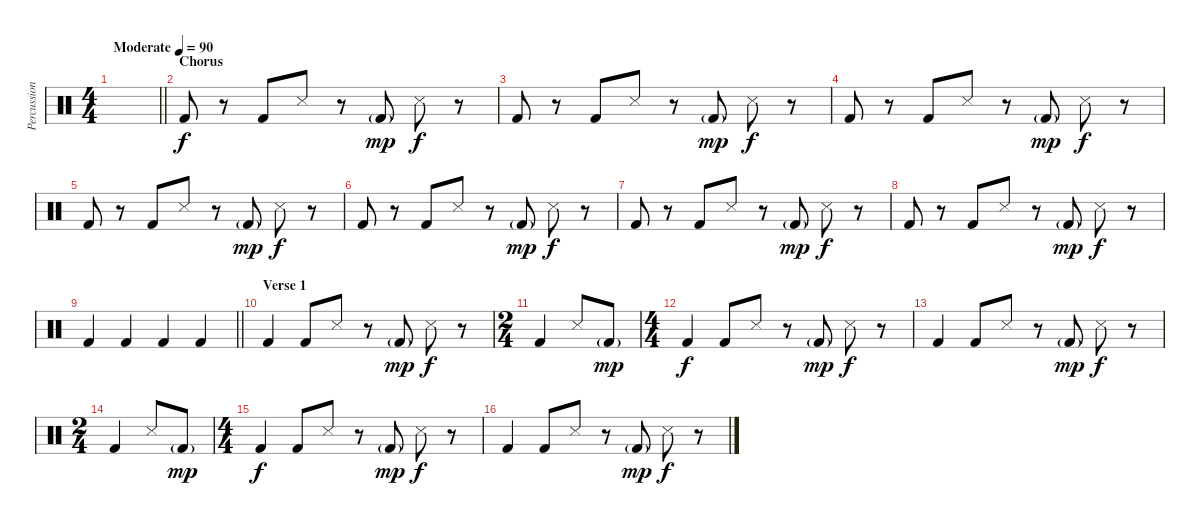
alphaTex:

\track ("Percussion" "Percussion") {instrument percussion}
\staff {score}
\articulation defaults
\ts (4 4)
\tempo (90 "Moderate")
\clef neutral
\barLineRight lightlight
\ks c
|
\section ("" "Chorus")
"Kick (hit) 2".8 r.8 "Kick (hit) 2".8 "Snare (side stick) 3".8 r.8 "Kick (hit) 2"{g}.8{dy mp} "Snare (side stick) 3".8{dy f} r.8 |
"Kick (hit) 2".8 r.8 "Kick (hit) 2".8 "Snare (side stick) 3".8 r.8 "Kick (hit) 2"{g}.8{dy mp} "Snare (side stick) 3".8{dy f} r.8 |
"Kick (hit) 2".8 r.8 "Kick (hit) 2".8 "Snare (side stick) 3".8 r.8 "Kick (hit) 2"{g}.8{dy mp} "Snare (side stick) 3".8{dy f} r.8 |
"Kick (hit) 2".8 r.8 "Kick (hit) 2".8 "Snare (side stick) 3".8 r.8 "Kick (hit) 2"{g}.8{dy mp} "Snare (side stick) 3".8{dy f} r.8 |
"Kick (hit) 2".8 r.8 "Kick (hit) 2".8 "Snare (side stick) 3".8 r.8 "Kick (hit) 2"{g}.8{dy mp} "Snare (side stick) 3".8{dy f} r.8 |
"Kick (hit) 2".8 r.8 "Kick (hit) 2".8 "Snare (side stick) 3".8 r.8 "Kick (hit) 2"{g}.8{dy mp} "Snare (side stick) 3".8{dy f} r.8 |
"Kick (hit) 2".8 r.8 "Kick (hit) 2".8 "Snare (side stick) 3".8 r.8 "Kick (hit) 2"{g}.8{dy mp} "Snare (side stick) 3".8{dy f} r.8 |
\barLineRight lightlight "Kick (hit) 2".4 "Kick (hit) 2".4 "Kick (hit) 2".4 "Kick (hit) 2".4
|
\section ("" "Verse 1")
"Kick (hit) 2".4 "Kick (hit) 2".8 "Snare (side stick) 3".8 r.8 "Kick (hit) 2"{g}.8{dy mp} "Snare (side stick) 3".8{dy f} r.8 |
\ts (2 4)
"Kick (hit) 2".4 "Snare (side stick) 3".8 "Kick (hit) 2"{g}.8{dy mp} |
\ts (4 4)
"Kick (hit) 2".4{dy f} "Kick (hit) 2".8 "Snare (side stick) 3".8 r.8 "Kick (hit) 2"{g}.8{dy mp} "Snare (side stick) 3".8{dy f} r.8 |
"Kick (hit) 2".4 "Kick (hit) 2".8 "Snare (side stick) 3".8 r.8 "Kick (hit) 2"{g}.8{dy mp} "Snare (side stick) 3".8{dy f} r.8 |
\ts (2 4)
"Kick (hit) 2".4 "Snare (side stick) 3".8 "Kick (hit) 2"{g}.8{dy mp} |
\ts (4 4)
"Kick (hit) 2".4{dy f} "Kick (hit) 2".8 "Snare (side stick) 3".8 r.8 "Kick (hit) 2"{g}.8{dy mp} "Snare (side stick) 3".8{dy f} r.8 |
"Kick (hit) 2".4 "Kick (hit) 2".8 "Snare (side stick) 3".8 r.8 "Kick (hit) 2"{g}.8{dy mp} "Snare (side stick) 3".8{dy f} r.8
